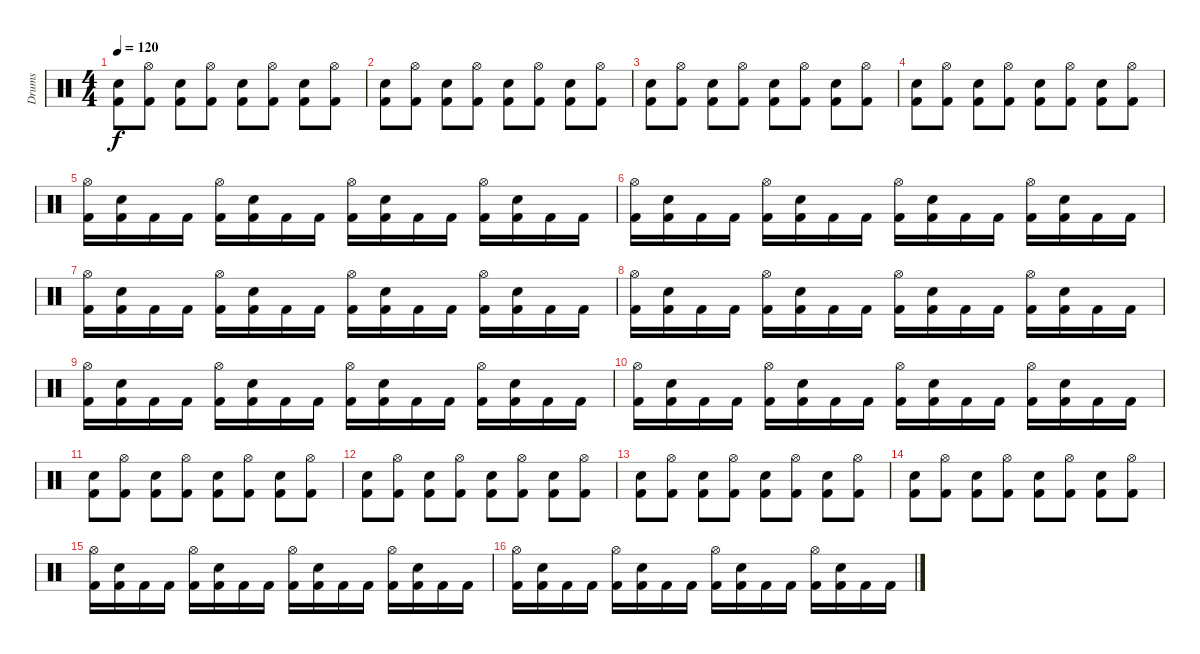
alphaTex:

\track ("Drums" "Drums") {instrument percussion}
\staff {score}
\articulation defaults
\ts (4 4)
\tempo 120
\clef neutral
\ks c
("Snare (hit) 2" "Kick (hit) 2").8{dy f} ("Hi-Hat (open)" "Kick (hit) 2").8 ("Snare (hit) 2" "Kick (hit) 2").8 ("Hi-Hat (open)" "Kick (hit) 2").8 ("Snare (hit) 2" "Kick (hit) 2").8 ("Hi-Hat (open)" "Kick (hit) 2").8 ("Snare (hit) 2" "Kick (hit) 2").8 ("Hi-Hat (open)" "Kick (hit) 2").8 |
("Snare (hit) 2" "Kick (hit) 2").8 ("Hi-Hat (open)" "Kick (hit) 2").8 ("Snare (hit) 2" "Kick (hit) 2").8 ("Hi-Hat (open)" "Kick (hit) 2").8 ("Snare (hit) 2" "Kick (hit) 2").8 ("Hi-Hat (open)" "Kick (hit) 2").8 ("Snare (hit) 2" "Kick (hit) 2").8 ("Hi-Hat (open)" "Kick (hit) 2").8 |
("Snare (hit) 2" "Kick (hit) 2").8 ("Hi-Hat (open)" "Kick (hit) 2").8 ("Snare (hit) 2" "Kick (hit) 2").8 ("Hi-Hat (open)" "Kick (hit) 2").8 ("Snare (hit) 2" "Kick (hit) 2").8 ("Hi-Hat (open)" "Kick (hit) 2").8 ("Snare (hit) 2" "Kick (hit) 2").8 ("Hi-Hat (open)" "Kick (hit) 2").8 |
("Snare (hit) 2" "Kick (hit) 2").8 ("Hi-Hat (open)" "Kick (hit) 2").8 ("Snare (hit) 2" "Kick (hit) 2").8 ("Hi-Hat (open)" "Kick (hit) 2").8 ("Snare (hit) 2" "Kick (hit) 2").8 ("Hi-Hat (open)" "Kick (hit) 2").8 ("Snare (hit) 2" "Kick (hit) 2").8 ("Hi-Hat (open)" "Kick (hit) 2").8 |
("Hi-Hat (open)" "Kick (hit) 2").16 ("Snare (hit) 2" "Kick (hit) 2").16 "Kick (hit) 2".16 "Kick (hit) 2".16 ("Hi-Hat (open)" "Kick (hit) 2").16 ("Snare (hit) 2" "Kick (hit) 2").16 "Kick (hit) 2".16 "Kick (hit) 2".16 ("Hi-Hat (open)" "Kick (hit) 2").16 ("Snare (hit) 2" "Kick (hit) 2").16 "Kick (hit) 2".16 "Kick (hit) 2".16 ("Hi-Hat (open)" "Kick (hit) 2").16 ("Snare (hit) 2" "Kick (hit) 2").16 "Kick (hit) 2".16 "Kick (hit) 2".16 |
("Hi-Hat (open)" "Kick (hit) 2").16 ("Snare (hit) 2" "Kick (hit) 2").16 "Kick (hit) 2".16 "Kick (hit) 2".16 ("Hi-Hat (open)" "Kick (hit) 2").16 ("Snare (hit) 2" "Kick (hit) 2").16 "Kick (hit) 2".16 "Kick (hit) 2".16 ("Hi-Hat (open)" "Kick (hit) 2").16 ("Snare (hit) 2" "Kick (hit) 2").16 "Kick (hit) 2".16 "Kick (hit) 2".16 ("Hi-Hat (open)" "Kick (hit) 2").16 ("Snare (hit) 2" "Kick (hit) 2").16 "Kick (hit) 2".16 "Kick (hit) 2".16 |
("Hi-Hat (open)" "Kick (hit) 2").16 ("Snare (hit) 2" "Kick (hit) 2").16 "Kick (hit) 2".16 "Kick (hit) 2".16 ("Hi-Hat (open)" "Kick (hit) 2").16 ("Snare (hit) 2" "Kick (hit) 2").16 "Kick (hit) 2".16 "Kick (hit) 2".16 ("Hi-Hat (open)" "Kick (hit) 2").16 ("Snare (hit) 2" "Kick (hit) 2").16 "Kick (hit) 2".16 "Kick (hit) 2".16 ("Hi-Hat (open)" "Kick (hit) 2").16 ("Snare (hit) 2" "Kick (hit) 2").16 "Kick (hit) 2".16 "Kick (hit) 2".16 |
("Hi-Hat (open)" "Kick (hit) 2").16 ("Snare (hit) 2" "Kick (hit) 2").16 "Kick (hit) 2".16 "Kick (hit) 2".16 ("Hi-Hat (open)" "Kick (hit) 2").16 ("Snare (hit) 2" "Kick (hit) 2").16 "Kick (hit) 2".16 "Kick (hit) 2".16 ("Hi-Hat (open)" "Kick (hit) 2").16 ("Snare (hit) 2" "Kick (hit) 2").16 "Kick (hit) 2".16 "Kick (hit) 2".16 ("Hi-Hat (open)" "Kick (hit) 2").16 ("Snare (hit) 2" "Kick (hit) 2").16 "Kick (hit) 2".16 "Kick (hit) 2".16 |
("Hi-Hat (open)" "Kick (hit) 2").16 ("Snare (hit) 2" "Kick (hit) 2").16 "Kick (hit) 2".16 "Kick (hit) 2".16 ("Hi-Hat (open)" "Kick (hit) 2").16 ("Snare (hit) 2" "Kick (hit) 2").16 "Kick (hit) 2".16 "Kick (hit) 2".16 ("Hi-Hat (open)" "Kick (hit) 2").16 ("Snare (hit) 2" "Kick (hit) 2").16 "Kick (hit) 2".16 "Kick (hit) 2".16 ("Hi-Hat (open)" "Kick (hit) 2").16 ("Snare (hit) 2" "Kick (hit) 2").16 "Kick (hit) 2".16 "Kick (hit) 2".16 |
("Hi-Hat (open)" "Kick (hit) 2").16 ("Snare (hit) 2" "Kick (hit) 2").16 "Kick (hit) 2".16 "Kick (hit) 2".16 ("Hi-Hat (open)" "Kick (hit) 2").16 ("Snare (hit) 2" "Kick (hit) 2").16 "Kick (hit) 2".16 "Kick (hit) 2".16 ("Hi-Hat (open)" "Kick (hit) 2").16 ("Snare (hit) 2" "Kick (hit) 2").16 "Kick (hit) 2".16 "Kick (hit) 2".16 ("Hi-Hat (open)" "Kick (hit) 2").16 ("Snare (hit) 2" "Kick (hit) 2").16 "Kick (hit) 2".16 "Kick (hit) 2".16 |
("Snare (hit) 2" "Kick (hit) 2").8 ("Hi-Hat (open)" "Kick (hit) 2").8 ("Snare (hit) 2" "Kick (hit) 2").8 ("Hi-Hat (open)" "Kick (hit) 2").8 ("Snare (hit) 2" "Kick (hit) 2").8 ("Hi-Hat (open)" "Kick (hit) 2").8 ("Snare (hit) 2" "Kick (hit) 2").8 ("Hi-Hat (open)" "Kick (hit) 2").8 |
("Snare (hit) 2" "Kick (hit) 2").8 ("Hi-Hat (open)" "Kick (hit) 2").8 ("Snare (hit) 2" "Kick (hit) 2").8 ("Hi-Hat (open)" "Kick (hit) 2").8 ("Snare (hit) 2" "Kick (hit) 2").8 ("Hi-Hat (open)" "Kick (hit) 2").8 ("Snare (hit) 2" "Kick (hit) 2").8 ("Hi-Hat (open)" "Kick (hit) 2").8 |
("Snare (hit) 2" "Kick (hit) 2").8 ("Hi-Hat (open)" "Kick (hit) 2").8 ("Snare (hit) 2" "Kick (hit) 2").8 ("Hi-Hat (open)" "Kick (hit) 2").8 ("Snare (hit) 2" "Kick (hit) 2").8 ("Hi-Hat (open)" "Kick (hit) 2").8 ("Snare (hit) 2" "Kick (hit) 2").8 ("Hi-Hat (open)" "Kick (hit) 2").8 |
("Snare (hit) 2" "Kick (hit) 2").8 ("Hi-Hat (open)" "Kick (hit) 2").8 ("Snare (hit) 2" "Kick (hit) 2").8 ("Hi-Hat (open)" "Kick (hit) 2").8 ("Snare (hit) 2" "Kick (hit) 2").8 ("Hi-Hat (open)" "Kick (hit) 2").8 ("Snare (hit) 2" "Kick (hit) 2").8 ("Hi-Hat (open)" "Kick (hit) 2").8 |
("Hi-Hat (open)" "Kick (hit) 2").16 ("Snare (hit) 2" "Kick (hit) 2").16 "Kick (hit) 2".16 "Kick (hit) 2".16 ("Hi-Hat (open)" "Kick (hit) 2").16 ("Snare (hit) 2" "Kick (hit) 2").16 "Kick (hit) 2".16 "Kick (hit) 2".16 ("Hi-Hat (open)" "Kick (hit) 2").16 ("Snare (hit) 2" "Kick (hit) 2").16 "Kick (hit) 2".16 "Kick (hit) 2".16 ("Hi-Hat (open)" "Kick (hit) 2").16 ("Snare (hit) 2" "Kick (hit) 2").16 "Kick (hit) 2".16 "Kick (hit) 2".16 |
("Hi-Hat (open)" "Kick (hit) 2").16 ("Snare (hit) 2" "Kick (hit) 2").16 "Kick (hit) 2".16 "Kick (hit) 2".16 ("Hi-Hat (open)" "Kick (hit) 2").16 ("Snare (hit) 2" "Kick (hit) 2").16 "Kick (hit) 2".16 "Kick (hit) 2".16 ("Hi-Hat (open)" "Kick (hit) 2").16 ("Snare (hit) 2" "Kick (hit) 2").16 "Kick (hit) 2".16 "Kick (hit) 2".16 ("Hi-Hat (open)" "Kick (hit) 2").16 ("Snare (hit) 2" "Kick (hit) 2").16 "Kick (hit) 2".16 "Kick (hit) 2".16
